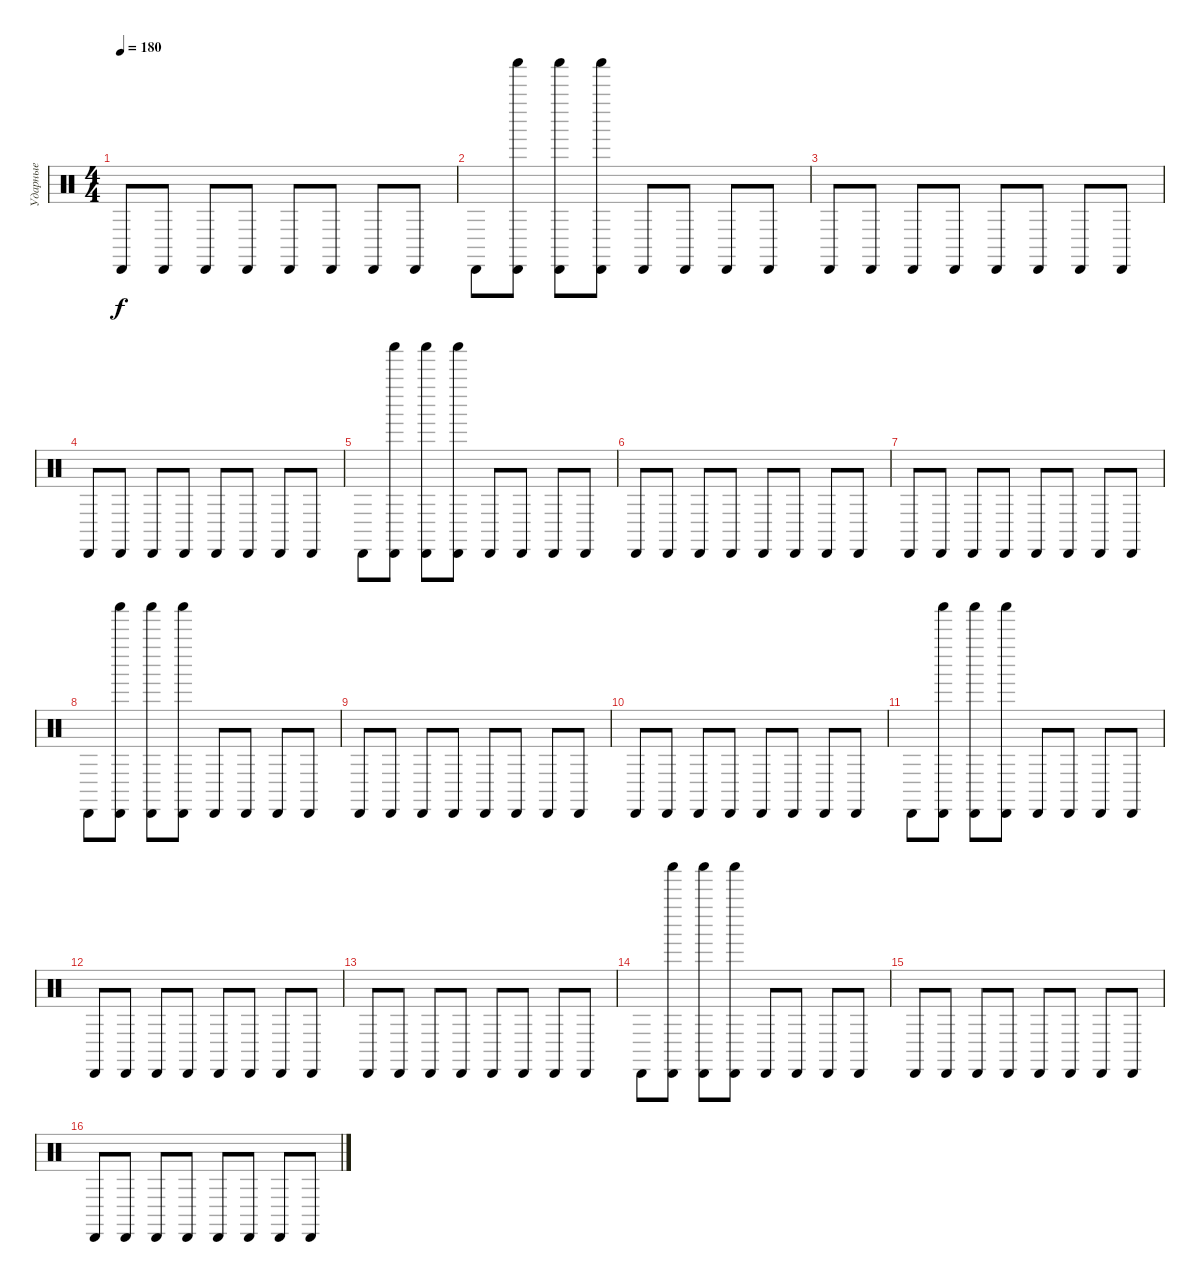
\track ("Ударные" "Ударные") {instrument percussion}
\staff {score}
\articulation defaults
\ts (4 4)
\tempo 180
\clef neutral
\ks c "Cabasa (hit)".8{dy f} "Cabasa (hit)".8 "Cabasa (hit)".8 "Cabasa (hit)".8 "Cabasa (hit)".8 "Cabasa (hit)".8 "Cabasa (hit)".8 "Cabasa (hit)".8
|
"Cabasa (hit)".8 ("Shaker (hit)" "Cabasa (hit)").8 ("Shaker (hit)" "Cabasa (hit)").8 ("Shaker (hit)" "Cabasa (hit)").8 "Cabasa (hit)".8 "Cabasa (hit)".8 "Cabasa (hit)".8 "Cabasa (hit)".8 |
"Cabasa (hit)".8 "Cabasa (hit)".8 "Cabasa (hit)".8 "Cabasa (hit)".8 "Cabasa (hit)".8 "Cabasa (hit)".8 "Cabasa (hit)".8 "Cabasa (hit)".8 |
"Cabasa (hit)".8 "Cabasa (hit)".8 "Cabasa (hit)".8 "Cabasa (hit)".8 "Cabasa (hit)".8 "Cabasa (hit)".8 "Cabasa (hit)".8 "Cabasa (hit)".8 |
"Cabasa (hit)".8 ("Shaker (hit)" "Cabasa (hit)").8 ("Shaker (hit)" "Cabasa (hit)").8 ("Shaker (hit)" "Cabasa (hit)").8 "Cabasa (hit)".8 "Cabasa (hit)".8 "Cabasa (hit)".8 "Cabasa (hit)".8 |
"Cabasa (hit)".8 "Cabasa (hit)".8 "Cabasa (hit)".8 "Cabasa (hit)".8 "Cabasa (hit)".8 "Cabasa (hit)".8 "Cabasa (hit)".8 "Cabasa (hit)".8 |
"Cabasa (hit)".8 "Cabasa (hit)".8 "Cabasa (hit)".8 "Cabasa (hit)".8 "Cabasa (hit)".8 "Cabasa (hit)".8 "Cabasa (hit)".8 "Cabasa (hit)".8 |
"Cabasa (hit)".8 ("Shaker (hit)" "Cabasa (hit)").8 ("Shaker (hit)" "Cabasa (hit)").8 ("Shaker (hit)" "Cabasa (hit)").8 "Cabasa (hit)".8 "Cabasa (hit)".8 "Cabasa (hit)".8 "Cabasa (hit)".8 |
"Cabasa (hit)".8 "Cabasa (hit)".8 "Cabasa (hit)".8 "Cabasa (hit)".8 "Cabasa (hit)".8 "Cabasa (hit)".8 "Cabasa (hit)".8 "Cabasa (hit)".8 |
"Cabasa (hit)".8 "Cabasa (hit)".8 "Cabasa (hit)".8 "Cabasa (hit)".8 "Cabasa (hit)".8 "Cabasa (hit)".8 "Cabasa (hit)".8 "Cabasa (hit)".8 |
"Cabasa (hit)".8 ("Shaker (hit)" "Cabasa (hit)").8 ("Shaker (hit)" "Cabasa (hit)").8 ("Shaker (hit)" "Cabasa (hit)").8 "Cabasa (hit)".8 "Cabasa (hit)".8 "Cabasa (hit)".8 "Cabasa (hit)".8 |
"Cabasa (hit)".8 "Cabasa (hit)".8 "Cabasa (hit)".8 "Cabasa (hit)".8 "Cabasa (hit)".8 "Cabasa (hit)".8 "Cabasa (hit)".8 "Cabasa (hit)".8 |
"Cabasa (hit)".8 "Cabasa (hit)".8 "Cabasa (hit)".8 "Cabasa (hit)".8 "Cabasa (hit)".8 "Cabasa (hit)".8 "Cabasa (hit)".8 "Cabasa (hit)".8 |
"Cabasa (hit)".8 ("Shaker (hit)" "Cabasa (hit)").8 ("Shaker (hit)" "Cabasa (hit)").8 ("Shaker (hit)" "Cabasa (hit)").8 "Cabasa (hit)".8 "Cabasa (hit)".8 "Cabasa (hit)".8 "Cabasa (hit)".8 |
"Cabasa (hit)".8 "Cabasa (hit)".8 "Cabasa (hit)".8 "Cabasa (hit)".8 "Cabasa (hit)".8 "Cabasa (hit)".8 "Cabasa (hit)".8 "Cabasa (hit)".8 |
"Cabasa (hit)".8 "Cabasa (hit)".8 "Cabasa (hit)".8 "Cabasa (hit)".8 "Cabasa (hit)".8 "Cabasa (hit)".8 "Cabasa (hit)".8 "Cabasa (hit)".8
